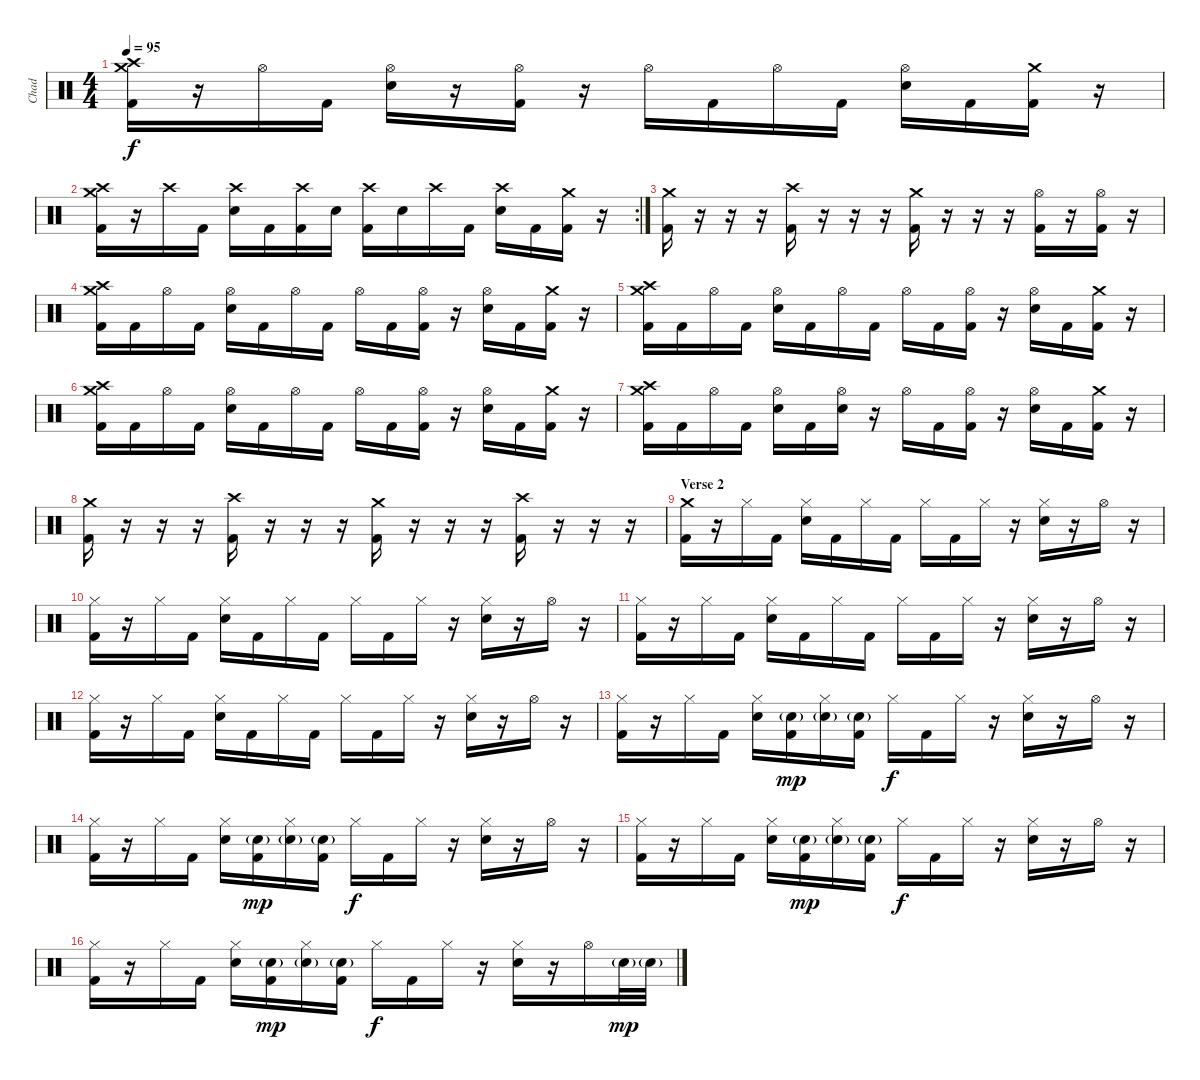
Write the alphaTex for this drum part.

\track ("Chad" "Chad") {instrument percussion}
\staff {score}
\articulation defaults
\ts (4 4)
\tempo 95
\clef neutral
\ks c
("Kick (hit) 2" "Crash high (hit)" "Crash medium (hit)").16{dy f} r.16 "Hi-Hat (open)".16 "Kick (hit) 2".16 ("Electric Snare (hit)" "Hi-Hat (open)").16 r.16 ("Kick (hit) 2" "Hi-Hat (open)").16 r.16 "Hi-Hat (open)".16 "Kick (hit) 2".16 "Hi-Hat (open)".16 "Kick (hit) 2".16 ("Electric Snare (hit)" "Hi-Hat (open)").16 "Kick (hit) 2".16 ("Kick (hit) 2" "Crash medium (hit)").16 r.16 |
\rc 2
("Kick (hit) 2" "Crash high (hit)" "Crash medium (hit)").16 r.16 "Crash high (hit)".16 "Kick (hit) 2".16 ("Electric Snare (hit)" "Crash high (hit)").16 "Kick (hit) 2".16 ("Kick (hit) 2" "Crash high (hit)").16 "Electric Snare (hit)".16 ("Kick (hit) 2" "Crash high (hit)").16 "Electric Snare (hit)".16 "Crash high (hit)".16 "Kick (hit) 2".16 ("Electric Snare (hit)" "Crash high (hit)").16 "Kick (hit) 2".16 ("Kick (hit) 2" "Crash medium (hit)").16 r.16 |
("Kick (hit) 2" "Crash medium (hit)").16 r.16 r.16 r.16 ("Kick (hit) 2" "Crash high (hit)").16 r.16 r.16 r.16 ("Kick (hit) 2" "Crash medium (hit)").16 r.16 r.16 r.16 ("Kick (hit) 2" "Hi-Hat (open)").16 r.16 ("Kick (hit) 2" "Hi-Hat (open)").16 r.16 |
("Kick (hit) 2" "Crash high (hit)" "Crash medium (hit)").16{volume 15} "Kick (hit) 2".16 "Hi-Hat (open)".16 "Kick (hit) 2".16 ("Electric Snare (hit)" "Hi-Hat (open)").16 "Kick (hit) 2".16 "Hi-Hat (open)".16 "Kick (hit) 2".16 "Hi-Hat (open)".16 "Kick (hit) 2".16 ("Kick (hit) 2" "Hi-Hat (open)").16 r.16 ("Electric Snare (hit)" "Hi-Hat (open)").16 "Kick (hit) 2".16 ("Kick (hit) 2" "Crash medium (hit)").16 r.16 |
("Kick (hit) 2" "Crash high (hit)" "Crash medium (hit)").16 "Kick (hit) 2".16 "Hi-Hat (open)".16 "Kick (hit) 2".16 ("Electric Snare (hit)" "Hi-Hat (open)").16 "Kick (hit) 2".16 "Hi-Hat (open)".16 "Kick (hit) 2".16 "Hi-Hat (open)".16 "Kick (hit) 2".16 ("Kick (hit) 2" "Hi-Hat (open)").16 r.16 ("Electric Snare (hit)" "Hi-Hat (open)").16 "Kick (hit) 2".16 ("Kick (hit) 2" "Crash medium (hit)").16 r.16 |
("Kick (hit) 2" "Crash high (hit)" "Crash medium (hit)").16{volume 15} "Kick (hit) 2".16 "Hi-Hat (open)".16 "Kick (hit) 2".16 ("Electric Snare (hit)" "Hi-Hat (open)").16 "Kick (hit) 2".16 "Hi-Hat (open)".16 "Kick (hit) 2".16 "Hi-Hat (open)".16 "Kick (hit) 2".16 ("Kick (hit) 2" "Hi-Hat (open)").16 r.16 ("Electric Snare (hit)" "Hi-Hat (open)").16 "Kick (hit) 2".16 ("Kick (hit) 2" "Crash medium (hit)").16 r.16 |
("Kick (hit) 2" "Crash high (hit)" "Crash medium (hit)").16 "Kick (hit) 2".16 "Hi-Hat (open)".16 "Kick (hit) 2".16 ("Electric Snare (hit)" "Hi-Hat (open)").16 "Kick (hit) 2".16 ("Electric Snare (hit)" "Hi-Hat (open)").16 r.16 "Hi-Hat (open)".16 "Kick (hit) 2".16 ("Kick (hit) 2" "Hi-Hat (open)").16 r.16 ("Electric Snare (hit)" "Hi-Hat (open)").16 "Kick (hit) 2".16 ("Kick (hit) 2" "Crash medium (hit)").16 r.16 |
("Kick (hit) 2" "Crash medium (hit)").16 r.16 r.16 r.16 ("Kick (hit) 2" "Crash high (hit)").16 r.16 r.16 r.16 ("Kick (hit) 2" "Crash medium (hit)").16 r.16 r.16 r.16 ("Kick (hit) 2" "Crash high (hit)").16 r.16 r.16 r.16 |
\section ("" "Verse 2")
("Kick (hit) 2" "Crash medium (hit)").16 r.16 "Hi-Hat (closed)".16 "Kick (hit) 2".16 ("Electric Snare (hit)" "Hi-Hat (closed)").16 "Kick (hit) 2".16 "Hi-Hat (closed)".16 "Kick (hit) 2".16 "Hi-Hat (closed)".16 "Kick (hit) 2".16 "Hi-Hat (closed)".16 r.16 ("Electric Snare (hit)" "Hi-Hat (closed)").16 r.16 "Hi-Hat (open)".16 r.16 |
("Kick (hit) 2" "Hi-Hat (closed)").16 r.16 "Hi-Hat (closed)".16 "Kick (hit) 2".16 ("Electric Snare (hit)" "Hi-Hat (closed)").16 "Kick (hit) 2".16 "Hi-Hat (closed)".16 "Kick (hit) 2".16 "Hi-Hat (closed)".16 "Kick (hit) 2".16 "Hi-Hat (closed)".16 r.16 ("Electric Snare (hit)" "Hi-Hat (closed)").16 r.16 "Hi-Hat (open)".16 r.16 |
("Kick (hit) 2" "Hi-Hat (closed)").16 r.16 "Hi-Hat (closed)".16 "Kick (hit) 2".16 ("Electric Snare (hit)" "Hi-Hat (closed)").16 "Kick (hit) 2".16 "Hi-Hat (closed)".16 "Kick (hit) 2".16 "Hi-Hat (closed)".16 "Kick (hit) 2".16 "Hi-Hat (closed)".16 r.16 ("Electric Snare (hit)" "Hi-Hat (closed)").16 r.16 "Hi-Hat (open)".16 r.16 |
("Kick (hit) 2" "Hi-Hat (closed)").16 r.16 "Hi-Hat (closed)".16 "Kick (hit) 2".16 ("Electric Snare (hit)" "Hi-Hat (closed)").16 "Kick (hit) 2".16 "Hi-Hat (closed)".16 "Kick (hit) 2".16 "Hi-Hat (closed)".16 "Kick (hit) 2".16 "Hi-Hat (closed)".16 r.16 ("Electric Snare (hit)" "Hi-Hat (closed)").16 r.16 "Hi-Hat (open)".16 r.16 |
("Kick (hit) 2" "Hi-Hat (closed)").16 r.16 "Hi-Hat (closed)".16 "Kick (hit) 2".16 ("Electric Snare (hit)" "Hi-Hat (closed)").16 ("Kick (hit) 2" "Electric Snare (hit)"{g}).16{dy mp} ("Electric Snare (hit)"{g} "Hi-Hat (closed)").16 ("Kick (hit) 2" "Electric Snare (hit)"{g}).16 "Hi-Hat (closed)".16{dy f} "Kick (hit) 2".16 "Hi-Hat (closed)".16 r.16 ("Electric Snare (hit)" "Hi-Hat (closed)").16 r.16 "Hi-Hat (open)".16 r.16 |
("Kick (hit) 2" "Hi-Hat (closed)").16 r.16 "Hi-Hat (closed)".16 "Kick (hit) 2".16 ("Electric Snare (hit)" "Hi-Hat (closed)").16 ("Kick (hit) 2" "Electric Snare (hit)"{g}).16{dy mp} ("Electric Snare (hit)"{g} "Hi-Hat (closed)").16 ("Kick (hit) 2" "Electric Snare (hit)"{g}).16 "Hi-Hat (closed)".16{dy f} "Kick (hit) 2".16 "Hi-Hat (closed)".16 r.16 ("Electric Snare (hit)" "Hi-Hat (closed)").16 r.16 "Hi-Hat (open)".16 r.16 |
("Kick (hit) 2" "Hi-Hat (closed)").16 r.16 "Hi-Hat (closed)".16 "Kick (hit) 2".16 ("Electric Snare (hit)" "Hi-Hat (closed)").16 ("Kick (hit) 2" "Electric Snare (hit)"{g}).16{dy mp} ("Electric Snare (hit)"{g} "Hi-Hat (closed)").16 ("Kick (hit) 2" "Electric Snare (hit)"{g}).16 "Hi-Hat (closed)".16{dy f} "Kick (hit) 2".16 "Hi-Hat (closed)".16 r.16 ("Electric Snare (hit)" "Hi-Hat (closed)").16 r.16 "Hi-Hat (open)".16 r.16 |
("Kick (hit) 2" "Hi-Hat (closed)").16 r.16 "Hi-Hat (closed)".16 "Kick (hit) 2".16 ("Electric Snare (hit)" "Hi-Hat (closed)").16 ("Kick (hit) 2" "Electric Snare (hit)"{g}).16{dy mp} ("Electric Snare (hit)"{g} "Hi-Hat (closed)").16 ("Kick (hit) 2" "Electric Snare (hit)"{g}).16 "Hi-Hat (closed)".16{dy f} "Kick (hit) 2".16 "Hi-Hat (closed)".16 r.16 ("Electric Snare (hit)" "Hi-Hat (closed)").16 r.16 "Hi-Hat (open)".16 "Electric Snare (hit)"{g}.32{dy mp} "Electric Snare (hit)"{g}.32
